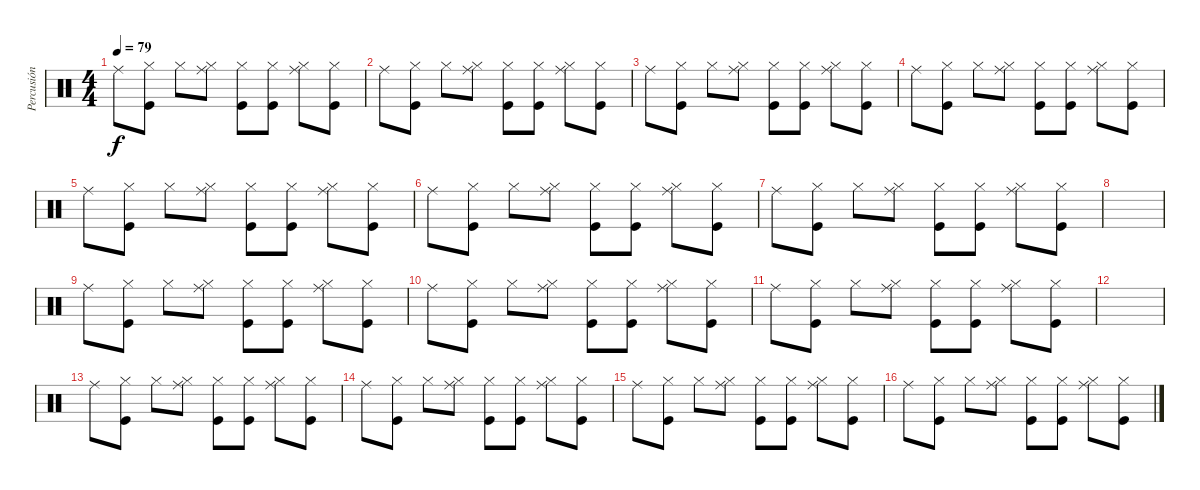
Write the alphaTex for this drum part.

\track ("Percusión" "Percusión") {instrument percussion}
\staff {score}
\articulation defaults
\ts (4 4)
\tempo 79
\clef neutral
\ks c "Ride (middle)".8{dy f}
("Kick (hit)" "Hi-Hat (closed)").8 "Hi-Hat (closed)".8 ("Ride (middle)" "Hi-Hat (closed)").8 ("Kick (hit)" "Hi-Hat (closed)").8 ("Kick (hit)" "Hi-Hat (closed)").8 ("Ride (middle)" "Hi-Hat (closed)").8 ("Kick (hit)" "Hi-Hat (closed)").8 |
"Ride (middle)".8 ("Kick (hit)" "Hi-Hat (closed)").8 "Hi-Hat (closed)".8 ("Ride (middle)" "Hi-Hat (closed)").8 ("Kick (hit)" "Hi-Hat (closed)").8 ("Kick (hit)" "Hi-Hat (closed)").8 ("Ride (middle)" "Hi-Hat (closed)").8 ("Kick (hit)" "Hi-Hat (closed)").8 |
"Ride (middle)".8 ("Kick (hit)" "Hi-Hat (closed)").8 "Hi-Hat (closed)".8 ("Ride (middle)" "Hi-Hat (closed)").8 ("Kick (hit)" "Hi-Hat (closed)").8 ("Kick (hit)" "Hi-Hat (closed)").8 ("Ride (middle)" "Hi-Hat (closed)").8 ("Kick (hit)" "Hi-Hat (closed)").8 |
"Ride (middle)".8 ("Kick (hit)" "Hi-Hat (closed)").8 "Hi-Hat (closed)".8 ("Ride (middle)" "Hi-Hat (closed)").8 ("Kick (hit)" "Hi-Hat (closed)").8 ("Kick (hit)" "Hi-Hat (closed)").8 ("Ride (middle)" "Hi-Hat (closed)").8 ("Kick (hit)" "Hi-Hat (closed)").8 |
"Ride (middle)".8 ("Kick (hit)" "Hi-Hat (closed)").8 "Hi-Hat (closed)".8 ("Ride (middle)" "Hi-Hat (closed)").8 ("Kick (hit)" "Hi-Hat (closed)").8 ("Kick (hit)" "Hi-Hat (closed)").8 ("Ride (middle)" "Hi-Hat (closed)").8 ("Kick (hit)" "Hi-Hat (closed)").8 |
"Ride (middle)".8 ("Kick (hit)" "Hi-Hat (closed)").8 "Hi-Hat (closed)".8 ("Ride (middle)" "Hi-Hat (closed)").8 ("Kick (hit)" "Hi-Hat (closed)").8 ("Kick (hit)" "Hi-Hat (closed)").8 ("Ride (middle)" "Hi-Hat (closed)").8 ("Kick (hit)" "Hi-Hat (closed)").8 |
"Ride (middle)".8 ("Kick (hit)" "Hi-Hat (closed)").8 "Hi-Hat (closed)".8 ("Ride (middle)" "Hi-Hat (closed)").8 ("Kick (hit)" "Hi-Hat (closed)").8 ("Kick (hit)" "Hi-Hat (closed)").8 ("Ride (middle)" "Hi-Hat (closed)").8 ("Kick (hit)" "Hi-Hat (closed)").8 |
|
"Ride (middle)".8 ("Kick (hit)" "Hi-Hat (closed)").8 "Hi-Hat (closed)".8 ("Ride (middle)" "Hi-Hat (closed)").8 ("Kick (hit)" "Hi-Hat (closed)").8 ("Kick (hit)" "Hi-Hat (closed)").8 ("Ride (middle)" "Hi-Hat (closed)").8 ("Kick (hit)" "Hi-Hat (closed)").8 |
"Ride (middle)".8 ("Kick (hit)" "Hi-Hat (closed)").8 "Hi-Hat (closed)".8 ("Ride (middle)" "Hi-Hat (closed)").8 ("Kick (hit)" "Hi-Hat (closed)").8 ("Kick (hit)" "Hi-Hat (closed)").8 ("Ride (middle)" "Hi-Hat (closed)").8 ("Kick (hit)" "Hi-Hat (closed)").8 |
"Ride (middle)".8 ("Kick (hit)" "Hi-Hat (closed)").8 "Hi-Hat (closed)".8 ("Ride (middle)" "Hi-Hat (closed)").8 ("Kick (hit)" "Hi-Hat (closed)").8 ("Kick (hit)" "Hi-Hat (closed)").8 ("Ride (middle)" "Hi-Hat (closed)").8 ("Kick (hit)" "Hi-Hat (closed)").8 |
|
"Ride (middle)".8 ("Kick (hit)" "Hi-Hat (closed)").8 "Hi-Hat (closed)".8 ("Ride (middle)" "Hi-Hat (closed)").8 ("Kick (hit)" "Hi-Hat (closed)").8 ("Kick (hit)" "Hi-Hat (closed)").8 ("Ride (middle)" "Hi-Hat (closed)").8 ("Kick (hit)" "Hi-Hat (closed)").8 |
"Ride (middle)".8 ("Kick (hit)" "Hi-Hat (closed)").8 "Hi-Hat (closed)".8 ("Ride (middle)" "Hi-Hat (closed)").8 ("Kick (hit)" "Hi-Hat (closed)").8 ("Kick (hit)" "Hi-Hat (closed)").8 ("Ride (middle)" "Hi-Hat (closed)").8 ("Kick (hit)" "Hi-Hat (closed)").8 |
"Ride (middle)".8 ("Kick (hit)" "Hi-Hat (closed)").8 "Hi-Hat (closed)".8 ("Ride (middle)" "Hi-Hat (closed)").8 ("Kick (hit)" "Hi-Hat (closed)").8 ("Kick (hit)" "Hi-Hat (closed)").8 ("Ride (middle)" "Hi-Hat (closed)").8 ("Kick (hit)" "Hi-Hat (closed)").8 |
"Ride (middle)".8 ("Kick (hit)" "Hi-Hat (closed)").8 "Hi-Hat (closed)".8 ("Ride (middle)" "Hi-Hat (closed)").8 ("Kick (hit)" "Hi-Hat (closed)").8 ("Kick (hit)" "Hi-Hat (closed)").8 ("Ride (middle)" "Hi-Hat (closed)").8 ("Kick (hit)" "Hi-Hat (closed)").8
